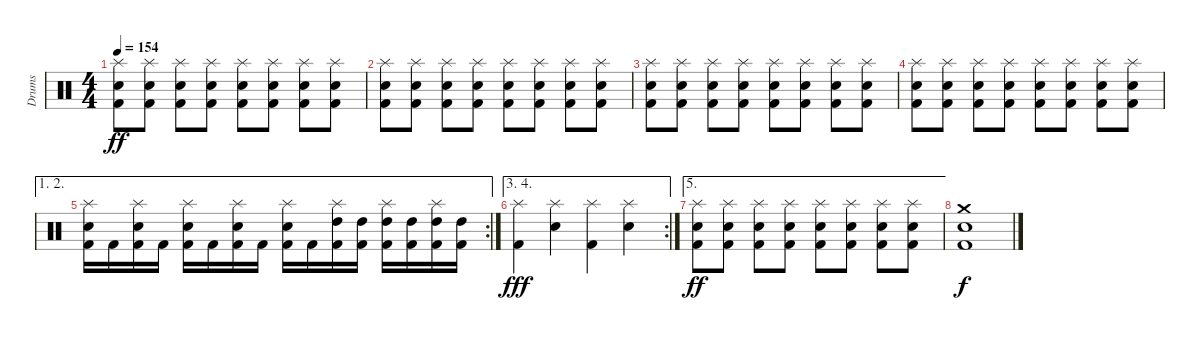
\track ("Drums" "Drums") {instrument percussion}
\staff {score}
\articulation defaults
\ts (4 4)
\tempo 154
\clef neutral
\ks c
("Splash (hit)" "Snare (hit) 2" "Kick (hit) 2").8{dy ff} ("Splash (hit)" "Snare (hit) 2" "Kick (hit) 2").8 ("Splash (hit)" "Snare (hit) 2" "Kick (hit) 2").8 ("Splash (hit)" "Snare (hit) 2" "Kick (hit) 2").8 ("Splash (hit)" "Snare (hit) 2" "Kick (hit) 2").8 ("Splash (hit)" "Snare (hit) 2" "Kick (hit) 2").8 ("Splash (hit)" "Snare (hit) 2" "Kick (hit) 2").8 ("Splash (hit)" "Snare (hit) 2" "Kick (hit) 2").8 |
("Splash (hit)" "Snare (hit) 2" "Kick (hit) 2").8 ("Splash (hit)" "Snare (hit) 2" "Kick (hit) 2").8 ("Splash (hit)" "Snare (hit) 2" "Kick (hit) 2").8 ("Splash (hit)" "Snare (hit) 2" "Kick (hit) 2").8 ("Splash (hit)" "Snare (hit) 2" "Kick (hit) 2").8 ("Splash (hit)" "Snare (hit) 2" "Kick (hit) 2").8 ("Splash (hit)" "Snare (hit) 2" "Kick (hit) 2").8 ("Splash (hit)" "Snare (hit) 2" "Kick (hit) 2").8 |
("Splash (hit)" "Snare (hit) 2" "Kick (hit) 2").8 ("Splash (hit)" "Snare (hit) 2" "Kick (hit) 2").8 ("Splash (hit)" "Snare (hit) 2" "Kick (hit) 2").8 ("Splash (hit)" "Snare (hit) 2" "Kick (hit) 2").8 ("Splash (hit)" "Snare (hit) 2" "Kick (hit) 2").8 ("Splash (hit)" "Snare (hit) 2" "Kick (hit) 2").8 ("Splash (hit)" "Snare (hit) 2" "Kick (hit) 2").8 ("Splash (hit)" "Snare (hit) 2" "Kick (hit) 2").8 |
("Splash (hit)" "Snare (hit) 2" "Kick (hit) 2").8 ("Splash (hit)" "Snare (hit) 2" "Kick (hit) 2").8 ("Splash (hit)" "Snare (hit) 2" "Kick (hit) 2").8 ("Splash (hit)" "Snare (hit) 2" "Kick (hit) 2").8 ("Splash (hit)" "Snare (hit) 2" "Kick (hit) 2").8 ("Splash (hit)" "Snare (hit) 2" "Kick (hit) 2").8 ("Splash (hit)" "Snare (hit) 2" "Kick (hit) 2").8 ("Splash (hit)" "Snare (hit) 2" "Kick (hit) 2").8 |
\ae (1 2)
\rc 2
("Splash (hit)" "Snare (hit) 2" "Kick (hit) 2").16 "Kick (hit) 2".16 ("Splash (hit)" "Snare (hit) 2" "Kick (hit) 2").16 "Kick (hit) 2".16 ("Splash (hit)" "Snare (hit) 2" "Kick (hit) 2").16 "Kick (hit) 2".16 ("Splash (hit)" "Snare (hit) 2" "Kick (hit) 2").16 "Kick (hit) 2".16 ("Splash (hit)" "Snare (hit) 2" "Kick (hit) 2").16 "Kick (hit) 2".16 ("Splash (hit)" "High Tom (hit)" "Kick (hit) 2").16 ("High Tom (hit)" "Kick (hit) 2").16 ("Splash (hit)" "High Tom (hit)" "Kick (hit) 2").16 ("High Tom (hit)" "Kick (hit) 2").16 ("Splash (hit)" "High Tom (hit)" "Kick (hit) 2").16 ("High Tom (hit)" "Kick (hit) 2").16 |
\ae (3 4)
\rc 2
("Splash (hit)" "Kick (hit) 2").4{dy fff} ("Splash (hit)" "Snare (hit) 2").4 ("Splash (hit)" "Kick (hit) 2").4 ("Splash (hit)" "Snare (hit) 2").4 |
\ae 5
("Splash (hit)" "Snare (hit) 2" "Kick (hit) 2").8{dy ff} ("Splash (hit)" "Snare (hit) 2" "Kick (hit) 2").8 ("Splash (hit)" "Snare (hit) 2" "Kick (hit) 2").8 ("Splash (hit)" "Snare (hit) 2" "Kick (hit) 2").8 ("Splash (hit)" "Snare (hit) 2" "Kick (hit) 2").8 ("Splash (hit)" "Snare (hit) 2" "Kick (hit) 2").8 ("Splash (hit)" "Snare (hit) 2" "Kick (hit) 2").8 ("Splash (hit)" "Snare (hit) 2" "Kick (hit) 2").8 |
("Crash medium (hit)" "Snare (hit) 2" "Kick (hit) 2").1{dy f}
